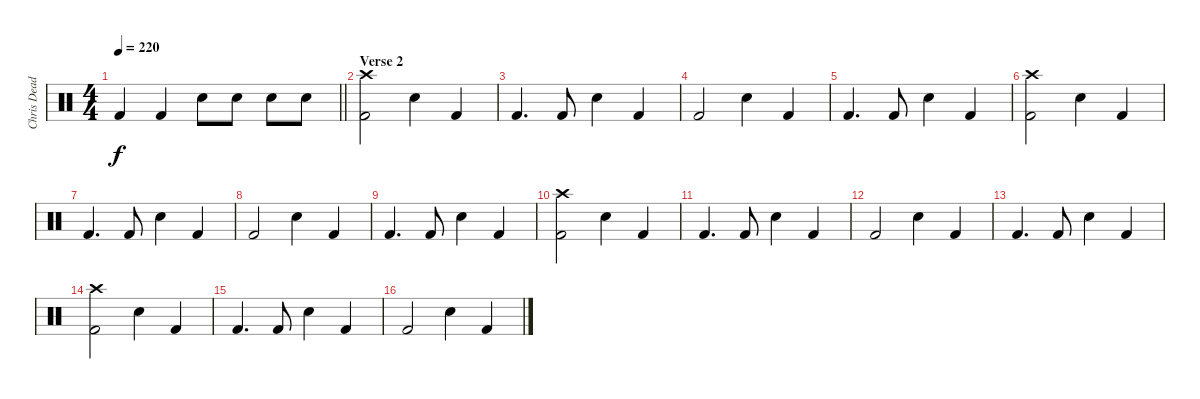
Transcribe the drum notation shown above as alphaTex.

\track ("Chris Dead" "Chris Dead") {instrument percussion}
\staff {score}
\articulation defaults
\ts (4 4)
\tempo 220
\clef neutral
\barLineRight lightlight
\ks c "Kick (hit) 2".4{dy f} "Kick (hit) 2".4 "Electric Snare (hit)".8 "Electric Snare (hit)".8 "Electric Snare (hit)".8 "Electric Snare (hit)".8
|
\section ("" "Verse 2")
("Crash high (hit)" "Kick (hit) 2").2 "Electric Snare (hit)".4 "Kick (hit) 2".4 |
"Kick (hit) 2".4{d} "Kick (hit) 2".8 "Electric Snare (hit)".4 "Kick (hit) 2".4 |
"Kick (hit) 2".2 "Electric Snare (hit)".4 "Kick (hit) 2".4 |
"Kick (hit) 2".4{d} "Kick (hit) 2".8 "Electric Snare (hit)".4 "Kick (hit) 2".4 |
("Crash high (hit)" "Kick (hit) 2").2 "Electric Snare (hit)".4 "Kick (hit) 2".4 |
"Kick (hit) 2".4{d} "Kick (hit) 2".8 "Electric Snare (hit)".4 "Kick (hit) 2".4 |
"Kick (hit) 2".2 "Electric Snare (hit)".4 "Kick (hit) 2".4 |
"Kick (hit) 2".4{d} "Kick (hit) 2".8 "Electric Snare (hit)".4 "Kick (hit) 2".4 |
("Crash high (hit)" "Kick (hit) 2").2 "Electric Snare (hit)".4 "Kick (hit) 2".4 |
"Kick (hit) 2".4{d} "Kick (hit) 2".8 "Electric Snare (hit)".4 "Kick (hit) 2".4 |
"Kick (hit) 2".2 "Electric Snare (hit)".4 "Kick (hit) 2".4 |
"Kick (hit) 2".4{d} "Kick (hit) 2".8 "Electric Snare (hit)".4 "Kick (hit) 2".4 |
("Crash high (hit)" "Kick (hit) 2").2 "Electric Snare (hit)".4 "Kick (hit) 2".4 |
"Kick (hit) 2".4{d} "Kick (hit) 2".8 "Electric Snare (hit)".4 "Kick (hit) 2".4 |
"Kick (hit) 2".2 "Electric Snare (hit)".4 "Kick (hit) 2".4
